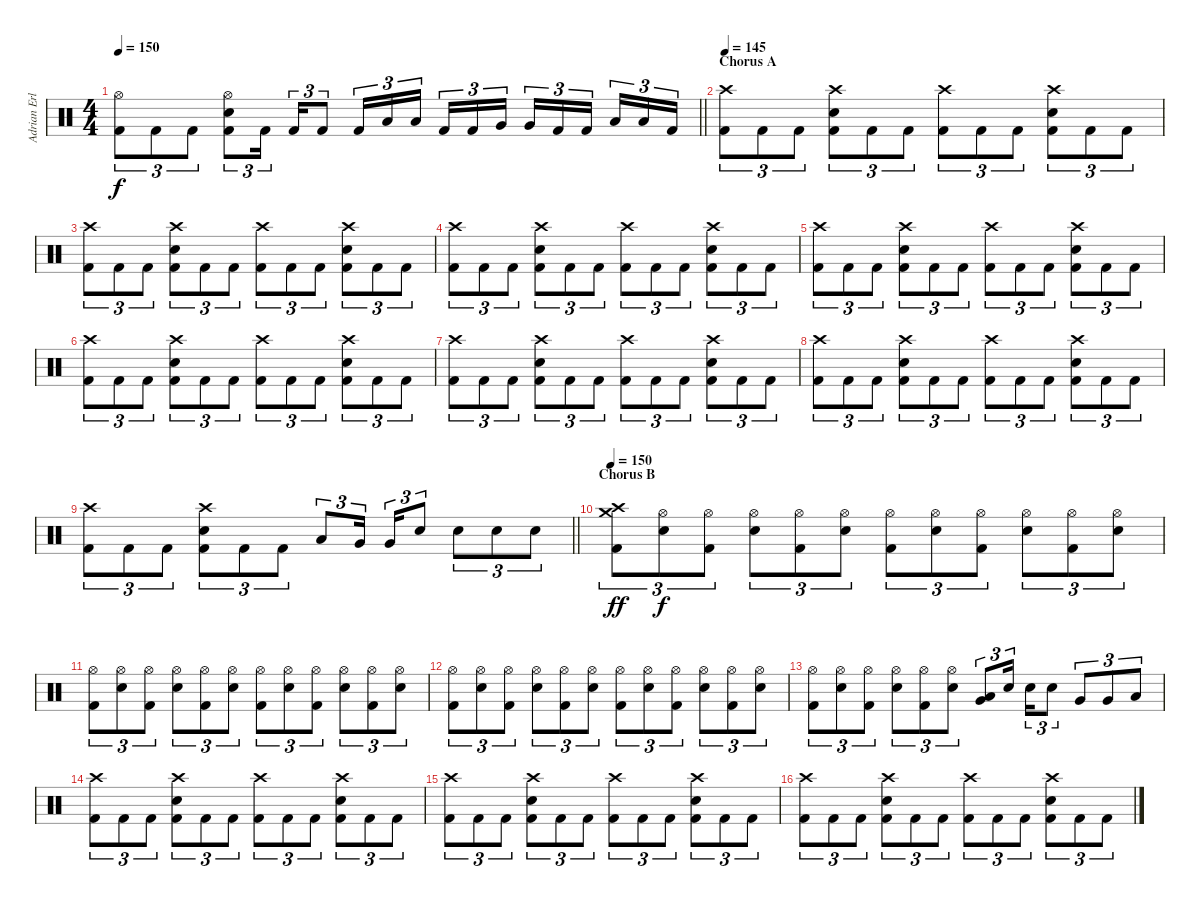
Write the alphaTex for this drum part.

\track ("Adrian Erlandsson" "Adrian Erl") {instrument percussion}
\staff {score}
\articulation defaults
\ts (4 4)
\tempo 150
\clef neutral
\barLineRight lightlight
\ks c
("Hi-Hat (open)" "Kick (hit) 2").8{tu (3 2) dy f} "Kick (hit) 2".8{tu (3 2)} "Kick (hit) 2".8{tu (3 2)} ("Hi-Hat (open)" "Snare (hit) 2" "Kick (hit) 2").8{tu (3 2)} "Kick (hit) 2".16{tu (3 2) beam splitsecondary} "Kick (hit) 2".16{tu (3 2)} "Kick (hit) 2".8{tu (3 2)} "Kick (hit) 2".16{tu (3 2)} "Low Tom (hit)".16{tu (3 2)} "Low Tom (hit)".16{tu (3 2) beam splitsecondary} "Kick (hit) 2".16{tu (3 2)} "Kick (hit) 2".16{tu (3 2)} "Very Low Tom (hit)".16{tu (3 2)} "Very Low Tom (hit)".16{tu (3 2)} "Kick (hit) 2".16{tu (3 2)} "Kick (hit) 2".16{tu (3 2) beam splitsecondary} "Low Floor Tom (hit)".16{tu (3 2)} "Low Floor Tom (hit)".16{tu (3 2)} "Kick (hit) 2".16{tu (3 2)} |
\section ("" "Chorus A")
\tempo 145
("Crash high (hit)" "Kick (hit) 2").8{tu (3 2)} "Kick (hit) 2".8{tu (3 2)} "Kick (hit) 2".8{tu (3 2)} ("Crash high (hit)" "Snare (hit) 2" "Kick (hit) 2").8{tu (3 2)} "Kick (hit) 2".8{tu (3 2)} "Kick (hit) 2".8{tu (3 2)} ("Crash high (hit)" "Kick (hit) 2").8{tu (3 2)} "Kick (hit) 2".8{tu (3 2)} "Kick (hit) 2".8{tu (3 2)} ("Crash high (hit)" "Snare (hit) 2" "Kick (hit) 2").8{tu (3 2)} "Kick (hit) 2".8{tu (3 2)} "Kick (hit) 2".8{tu (3 2)} |
("Crash high (hit)" "Kick (hit) 2").8{tu (3 2)} "Kick (hit) 2".8{tu (3 2)} "Kick (hit) 2".8{tu (3 2)} ("Crash high (hit)" "Snare (hit) 2" "Kick (hit) 2").8{tu (3 2)} "Kick (hit) 2".8{tu (3 2)} "Kick (hit) 2".8{tu (3 2)} ("Crash high (hit)" "Kick (hit) 2").8{tu (3 2)} "Kick (hit) 2".8{tu (3 2)} "Kick (hit) 2".8{tu (3 2)} ("Crash high (hit)" "Snare (hit) 2" "Kick (hit) 2").8{tu (3 2)} "Kick (hit) 2".8{tu (3 2)} "Kick (hit) 2".8{tu (3 2)} |
("Crash high (hit)" "Kick (hit) 2").8{tu (3 2)} "Kick (hit) 2".8{tu (3 2)} "Kick (hit) 2".8{tu (3 2)} ("Crash high (hit)" "Snare (hit) 2" "Kick (hit) 2").8{tu (3 2)} "Kick (hit) 2".8{tu (3 2)} "Kick (hit) 2".8{tu (3 2)} ("Crash high (hit)" "Kick (hit) 2").8{tu (3 2)} "Kick (hit) 2".8{tu (3 2)} "Kick (hit) 2".8{tu (3 2)} ("Crash high (hit)" "Snare (hit) 2" "Kick (hit) 2").8{tu (3 2)} "Kick (hit) 2".8{tu (3 2)} "Kick (hit) 2".8{tu (3 2)} |
("Crash high (hit)" "Kick (hit) 2").8{tu (3 2)} "Kick (hit) 2".8{tu (3 2)} "Kick (hit) 2".8{tu (3 2)} ("Crash high (hit)" "Snare (hit) 2" "Kick (hit) 2").8{tu (3 2)} "Kick (hit) 2".8{tu (3 2)} "Kick (hit) 2".8{tu (3 2)} ("Crash high (hit)" "Kick (hit) 2").8{tu (3 2)} "Kick (hit) 2".8{tu (3 2)} "Kick (hit) 2".8{tu (3 2)} ("Crash high (hit)" "Snare (hit) 2" "Kick (hit) 2").8{tu (3 2)} "Kick (hit) 2".8{tu (3 2)} "Kick (hit) 2".8{tu (3 2)} |
("Crash high (hit)" "Kick (hit) 2").8{tu (3 2)} "Kick (hit) 2".8{tu (3 2)} "Kick (hit) 2".8{tu (3 2)} ("Crash high (hit)" "Snare (hit) 2" "Kick (hit) 2").8{tu (3 2)} "Kick (hit) 2".8{tu (3 2)} "Kick (hit) 2".8{tu (3 2)} ("Crash high (hit)" "Kick (hit) 2").8{tu (3 2)} "Kick (hit) 2".8{tu (3 2)} "Kick (hit) 2".8{tu (3 2)} ("Crash high (hit)" "Snare (hit) 2" "Kick (hit) 2").8{tu (3 2)} "Kick (hit) 2".8{tu (3 2)} "Kick (hit) 2".8{tu (3 2)} |
("Crash high (hit)" "Kick (hit) 2").8{tu (3 2)} "Kick (hit) 2".8{tu (3 2)} "Kick (hit) 2".8{tu (3 2)} ("Crash high (hit)" "Snare (hit) 2" "Kick (hit) 2").8{tu (3 2)} "Kick (hit) 2".8{tu (3 2)} "Kick (hit) 2".8{tu (3 2)} ("Crash high (hit)" "Kick (hit) 2").8{tu (3 2)} "Kick (hit) 2".8{tu (3 2)} "Kick (hit) 2".8{tu (3 2)} ("Crash high (hit)" "Snare (hit) 2" "Kick (hit) 2").8{tu (3 2)} "Kick (hit) 2".8{tu (3 2)} "Kick (hit) 2".8{tu (3 2)} |
("Crash high (hit)" "Kick (hit) 2").8{tu (3 2)} "Kick (hit) 2".8{tu (3 2)} "Kick (hit) 2".8{tu (3 2)} ("Crash high (hit)" "Snare (hit) 2" "Kick (hit) 2").8{tu (3 2)} "Kick (hit) 2".8{tu (3 2)} "Kick (hit) 2".8{tu (3 2)} ("Crash high (hit)" "Kick (hit) 2").8{tu (3 2)} "Kick (hit) 2".8{tu (3 2)} "Kick (hit) 2".8{tu (3 2)} ("Crash high (hit)" "Snare (hit) 2" "Kick (hit) 2").8{tu (3 2)} "Kick (hit) 2".8{tu (3 2)} "Kick (hit) 2".8{tu (3 2)} |
\barLineRight lightlight
("Crash high (hit)" "Kick (hit) 2").8{tu (3 2)} "Kick (hit) 2".8{tu (3 2)} "Kick (hit) 2".8{tu (3 2)} ("Crash high (hit)" "Snare (hit) 2" "Kick (hit) 2").8{tu (3 2)} "Kick (hit) 2".8{tu (3 2)} "Kick (hit) 2".8{tu (3 2)} "Low Tom (hit)".8{tu (3 2)} "Very Low Tom (hit)".16{tu (3 2) beam splitsecondary} "Very Low Tom (hit)".16{tu (3 2)} "Snare (hit) 2".8{tu (3 2)} "Snare (hit) 2".8{tu (3 2)} "Snare (hit) 2".8{tu (3 2)} "Snare (hit) 2".8{tu (3 2)} |
\section ("" "Chorus B")
\tempo 150
("Crash high (hit)" "Crash medium (hit)" "Kick (hit) 2").8{tu (3 2) dy ff} ("Hi-Hat (open)" "Snare (hit) 2").8{tu (3 2) dy f} ("Hi-Hat (open)" "Kick (hit) 2").8{tu (3 2)} ("Hi-Hat (open)" "Snare (hit) 2").8{tu (3 2)} ("Hi-Hat (open)" "Kick (hit) 2").8{tu (3 2)} ("Hi-Hat (open)" "Snare (hit) 2").8{tu (3 2)} ("Hi-Hat (open)" "Kick (hit) 2").8{tu (3 2)} ("Hi-Hat (open)" "Snare (hit) 2").8{tu (3 2)} ("Hi-Hat (open)" "Kick (hit) 2").8{tu (3 2)} ("Hi-Hat (open)" "Snare (hit) 2").8{tu (3 2)} ("Hi-Hat (open)" "Kick (hit) 2").8{tu (3 2)} ("Hi-Hat (open)" "Snare (hit) 2").8{tu (3 2)} |
("Hi-Hat (open)" "Kick (hit) 2").8{tu (3 2)} ("Hi-Hat (open)" "Snare (hit) 2").8{tu (3 2)} ("Hi-Hat (open)" "Kick (hit) 2").8{tu (3 2)} ("Hi-Hat (open)" "Snare (hit) 2").8{tu (3 2)} ("Hi-Hat (open)" "Kick (hit) 2").8{tu (3 2)} ("Hi-Hat (open)" "Snare (hit) 2").8{tu (3 2)} ("Hi-Hat (open)" "Kick (hit) 2").8{tu (3 2)} ("Hi-Hat (open)" "Snare (hit) 2").8{tu (3 2)} ("Hi-Hat (open)" "Kick (hit) 2").8{tu (3 2)} ("Hi-Hat (open)" "Snare (hit) 2").8{tu (3 2)} ("Hi-Hat (open)" "Kick (hit) 2").8{tu (3 2)} ("Hi-Hat (open)" "Snare (hit) 2").8{tu (3 2)} |
("Hi-Hat (open)" "Kick (hit) 2").8{tu (3 2)} ("Hi-Hat (open)" "Snare (hit) 2").8{tu (3 2)} ("Hi-Hat (open)" "Kick (hit) 2").8{tu (3 2)} ("Hi-Hat (open)" "Snare (hit) 2").8{tu (3 2)} ("Hi-Hat (open)" "Kick (hit) 2").8{tu (3 2)} ("Hi-Hat (open)" "Snare (hit) 2").8{tu (3 2)} ("Hi-Hat (open)" "Kick (hit) 2").8{tu (3 2)} ("Hi-Hat (open)" "Snare (hit) 2").8{tu (3 2)} ("Hi-Hat (open)" "Kick (hit) 2").8{tu (3 2)} ("Hi-Hat (open)" "Snare (hit) 2").8{tu (3 2)} ("Hi-Hat (open)" "Kick (hit) 2").8{tu (3 2)} ("Hi-Hat (open)" "Snare (hit) 2").8{tu (3 2)} |
("Hi-Hat (open)" "Kick (hit) 2").8{tu (3 2)} ("Hi-Hat (open)" "Snare (hit) 2").8{tu (3 2)} ("Hi-Hat (open)" "Kick (hit) 2").8{tu (3 2)} ("Hi-Hat (open)" "Snare (hit) 2").8{tu (3 2)} ("Hi-Hat (open)" "Kick (hit) 2").8{tu (3 2)} ("Hi-Hat (open)" "Snare (hit) 2").8{tu (3 2)} ("Very Low Tom (hit)" "Low Floor Tom (hit)").8{tu (3 2)} "Snare (hit) 2".16{tu (3 2) beam splitsecondary} "Snare (hit) 2".16{tu (3 2)} "Snare (hit) 2".8{tu (3 2)} "Very Low Tom (hit)".8{tu (3 2)} "Very Low Tom (hit)".8{tu (3 2)} "Low Floor Tom (hit)".8{tu (3 2)} |
("Crash high (hit)" "Kick (hit) 2").8{tu (3 2)} "Kick (hit) 2".8{tu (3 2)} "Kick (hit) 2".8{tu (3 2)} ("Crash high (hit)" "Snare (hit) 2" "Kick (hit) 2").8{tu (3 2)} "Kick (hit) 2".8{tu (3 2)} "Kick (hit) 2".8{tu (3 2)} ("Crash high (hit)" "Kick (hit) 2").8{tu (3 2)} "Kick (hit) 2".8{tu (3 2)} "Kick (hit) 2".8{tu (3 2)} ("Crash high (hit)" "Snare (hit) 2" "Kick (hit) 2").8{tu (3 2)} "Kick (hit) 2".8{tu (3 2)} "Kick (hit) 2".8{tu (3 2)} |
("Crash high (hit)" "Kick (hit) 2").8{tu (3 2)} "Kick (hit) 2".8{tu (3 2)} "Kick (hit) 2".8{tu (3 2)} ("Crash high (hit)" "Snare (hit) 2" "Kick (hit) 2").8{tu (3 2)} "Kick (hit) 2".8{tu (3 2)} "Kick (hit) 2".8{tu (3 2)} ("Crash high (hit)" "Kick (hit) 2").8{tu (3 2)} "Kick (hit) 2".8{tu (3 2)} "Kick (hit) 2".8{tu (3 2)} ("Crash high (hit)" "Snare (hit) 2" "Kick (hit) 2").8{tu (3 2)} "Kick (hit) 2".8{tu (3 2)} "Kick (hit) 2".8{tu (3 2)} |
("Crash high (hit)" "Kick (hit) 2").8{tu (3 2)} "Kick (hit) 2".8{tu (3 2)} "Kick (hit) 2".8{tu (3 2)} ("Crash high (hit)" "Snare (hit) 2" "Kick (hit) 2").8{tu (3 2)} "Kick (hit) 2".8{tu (3 2)} "Kick (hit) 2".8{tu (3 2)} ("Crash high (hit)" "Kick (hit) 2").8{tu (3 2)} "Kick (hit) 2".8{tu (3 2)} "Kick (hit) 2".8{tu (3 2)} ("Crash high (hit)" "Snare (hit) 2" "Kick (hit) 2").8{tu (3 2)} "Kick (hit) 2".8{tu (3 2)} "Kick (hit) 2".8{tu (3 2)}
